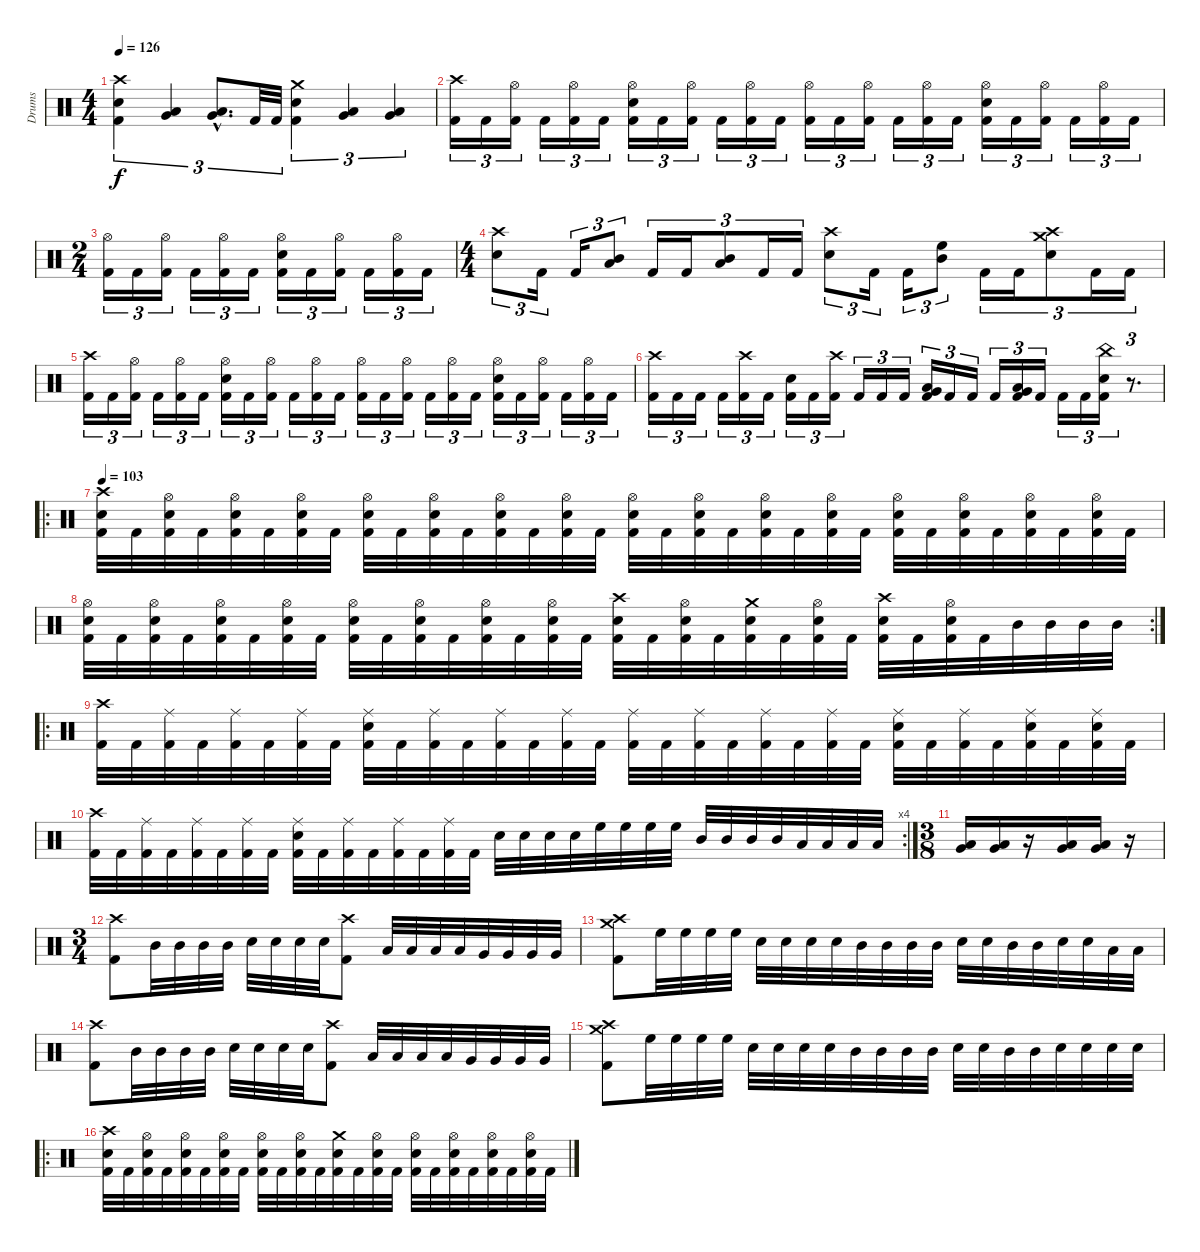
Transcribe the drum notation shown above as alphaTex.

\track ("Drums" "Drums") {instrument percussion}
\staff {score}
\articulation defaults
\ts (4 4)
\tempo 126
\clef neutral
\ks c
("Crash high (hit)" "Electric Snare (hit)" "Kick (hit) 2").4{tu (3 2) dy f} ("Low Tom (hit)" "Very Low Tom (hit)").4{tu (3 2)} ("Low Tom (hit)"{hac} "Very Low Tom (hit)"{hac}).8{d tu (3 2)} "Kick (hit) 2".32{tu (3 2)} "Kick (hit) 2".32{tu (3 2)} ("Crash medium (hit)" "Electric Snare (hit)" "Kick (hit) 2").4{tu (3 2)} ("Low Tom (hit)" "Very Low Tom (hit)").4{tu (3 2)} ("Low Tom (hit)" "Very Low Tom (hit)").4{tu (3 2)} |
("Crash high (hit)" "Kick (hit) 2").16{tu (3 2)} "Kick (hit) 2".16{tu (3 2)} ("Hi-Hat (open)" "Kick (hit) 2").16{tu (3 2)} "Kick (hit) 2".16{tu (3 2)} ("Hi-Hat (open)" "Kick (hit) 2").16{tu (3 2)} "Kick (hit) 2".16{tu (3 2)} ("Hi-Hat (open)" "Electric Snare (hit)" "Kick (hit) 2").16{tu (3 2)} "Kick (hit) 2".16{tu (3 2)} ("Hi-Hat (open)" "Kick (hit) 2").16{tu (3 2)} "Kick (hit) 2".16{tu (3 2)} ("Hi-Hat (open)" "Kick (hit) 2").16{tu (3 2)} "Kick (hit) 2".16{tu (3 2)} ("Hi-Hat (open)" "Kick (hit) 2").16{tu (3 2)} "Kick (hit) 2".16{tu (3 2)} ("Hi-Hat (open)" "Kick (hit) 2").16{tu (3 2)} "Kick (hit) 2".16{tu (3 2)} ("Hi-Hat (open)" "Kick (hit) 2").16{tu (3 2)} "Kick (hit) 2".16{tu (3 2)} ("Hi-Hat (open)" "Electric Snare (hit)" "Kick (hit) 2").16{tu (3 2)} "Kick (hit) 2".16{tu (3 2)} ("Hi-Hat (open)" "Kick (hit) 2").16{tu (3 2)} "Kick (hit) 2".16{tu (3 2)} ("Hi-Hat (open)" "Kick (hit) 2").16{tu (3 2)} "Kick (hit) 2".16{tu (3 2)} |
\ts (2 4)
("Hi-Hat (open)" "Kick (hit) 2").16{tu (3 2)} "Kick (hit) 2".16{tu (3 2)} ("Hi-Hat (open)" "Kick (hit) 2").16{tu (3 2)} "Kick (hit) 2".16{tu (3 2)} ("Hi-Hat (open)" "Kick (hit) 2").16{tu (3 2)} "Kick (hit) 2".16{tu (3 2)} ("Hi-Hat (open)" "Electric Snare (hit)" "Kick (hit) 2").16{tu (3 2)} "Kick (hit) 2".16{tu (3 2)} ("Hi-Hat (open)" "Kick (hit) 2").16{tu (3 2)} "Kick (hit) 2".16{tu (3 2)} ("Hi-Hat (open)" "Kick (hit) 2").16{tu (3 2)} "Kick (hit) 2".16{tu (3 2)} |
\ts (4 4)
("Crash high (hit)" "Electric Snare (hit)").8{tu (3 2)} "Kick (hit) 2".16{tu (3 2)} "Kick (hit) 2".16{tu (3 2)} ("Mid Tom (hit)" "Low Tom (hit)").8{tu (3 2)} "Kick (hit) 2".16{tu (3 2)} "Kick (hit) 2".16{tu (3 2)} ("Low Tom (hit)" "Mid Tom (hit)").8{tu (3 2)} "Kick (hit) 2".16{tu (3 2)} "Kick (hit) 2".16{tu (3 2)} ("Crash high (hit)" "Electric Snare (hit)").8{tu (3 2)} "Kick (hit) 2".16{tu (3 2)} "Kick (hit) 2".16{tu (3 2)} ("High Floor Tom (hit)" "Mid Tom (hit)").8{tu (3 2)} "Kick (hit) 2".16{tu (3 2)} "Kick (hit) 2".16{tu (3 2)} ("Crash medium (hit)" "Crash high (hit)" "Electric Snare (hit)").8{tu (3 2)} "Kick (hit) 2".16{tu (3 2)} "Kick (hit) 2".16{tu (3 2)} |
("Crash high (hit)" "Kick (hit) 2").16{tu (3 2)} "Kick (hit) 2".16{tu (3 2)} ("Hi-Hat (open)" "Kick (hit) 2").16{tu (3 2)} "Kick (hit) 2".16{tu (3 2)} ("Hi-Hat (open)" "Kick (hit) 2").16{tu (3 2)} "Kick (hit) 2".16{tu (3 2)} ("Hi-Hat (open)" "Electric Snare (hit)" "Kick (hit) 2").16{tu (3 2)} "Kick (hit) 2".16{tu (3 2)} ("Hi-Hat (open)" "Kick (hit) 2").16{tu (3 2)} "Kick (hit) 2".16{tu (3 2)} ("Hi-Hat (open)" "Kick (hit) 2").16{tu (3 2)} "Kick (hit) 2".16{tu (3 2)} ("Hi-Hat (open)" "Kick (hit) 2").16{tu (3 2)} "Kick (hit) 2".16{tu (3 2)} ("Hi-Hat (open)" "Kick (hit) 2").16{tu (3 2)} "Kick (hit) 2".16{tu (3 2)} ("Hi-Hat (open)" "Kick (hit) 2").16{tu (3 2)} "Kick (hit) 2".16{tu (3 2)} ("Hi-Hat (open)" "Electric Snare (hit)" "Kick (hit) 2").16{tu (3 2)} "Kick (hit) 2".16{tu (3 2)} ("Hi-Hat (open)" "Kick (hit) 2").16{tu (3 2)} "Kick (hit) 2".16{tu (3 2)} ("Hi-Hat (open)" "Kick (hit) 2").16{tu (3 2)} "Kick (hit) 2".16{tu (3 2)} |
("Crash high (hit)" "Kick (hit) 2").16{tu (3 2)} "Kick (hit) 2".16{tu (3 2)} "Kick (hit) 2".16{tu (3 2)} "Kick (hit) 2".16{tu (3 2)} ("Crash high (hit)" "Kick (hit) 2").16{tu (3 2)} "Kick (hit) 2".16{tu (3 2)} ("Electric Snare (hit)" "Kick (hit) 2").16{tu (3 2)} "Kick (hit) 2".16{tu (3 2)} ("Crash high (hit)" "Kick (hit) 2").16{tu (3 2)} "Kick (hit) 2".16{tu (3 2)} "Kick (hit) 2".16{tu (3 2)} "Kick (hit) 2".16{tu (3 2)} ("Low Tom (hit)" "Very Low Tom (hit)" "Kick (hit) 2").16{tu (3 2)} "Kick (hit) 2".16{tu (3 2)} "Kick (hit) 2".16{tu (3 2)} "Kick (hit) 2".16{tu (3 2)} ("Low Tom (hit)" "Very Low Tom (hit)" "Kick (hit) 2").16{tu (3 2)} "Kick (hit) 2".16{tu (3 2)} "Kick (hit) 2".16{tu (3 2)} "Kick (hit) 2".16{tu (3 2)} ("China (hit)" "Electric Snare (hit)" "Kick (hit) 2").16{tu (3 2)} r.8{d tu (3 2)} |
\ro
\tempo 103
("Crash high (hit)" "Electric Snare (hit)" "Kick (hit) 2").32 "Kick (hit) 2".32 ("Hi-Hat (open)" "Electric Snare (hit)" "Kick (hit) 2").32 "Kick (hit) 2".32 ("Hi-Hat (open)" "Electric Snare (hit)" "Kick (hit) 2").32 "Kick (hit) 2".32 ("Hi-Hat (open)" "Electric Snare (hit)" "Kick (hit) 2").32 "Kick (hit) 2".32 ("Hi-Hat (open)" "Electric Snare (hit)" "Kick (hit) 2").32 "Kick (hit) 2".32 ("Hi-Hat (open)" "Electric Snare (hit)" "Kick (hit) 2").32 "Kick (hit) 2".32 ("Hi-Hat (open)" "Electric Snare (hit)" "Kick (hit) 2").32 "Kick (hit) 2".32 ("Hi-Hat (open)" "Electric Snare (hit)" "Kick (hit) 2").32 "Kick (hit) 2".32 ("Hi-Hat (open)" "Electric Snare (hit)" "Kick (hit) 2").32 "Kick (hit) 2".32 ("Hi-Hat (open)" "Electric Snare (hit)" "Kick (hit) 2").32 "Kick (hit) 2".32 ("Hi-Hat (open)" "Electric Snare (hit)" "Kick (hit) 2").32 "Kick (hit) 2".32 ("Hi-Hat (open)" "Electric Snare (hit)" "Kick (hit) 2").32 "Kick (hit) 2".32 ("Hi-Hat (open)" "Electric Snare (hit)" "Kick (hit) 2").32 "Kick (hit) 2".32 ("Hi-Hat (open)" "Electric Snare (hit)" "Kick (hit) 2").32 "Kick (hit) 2".32 ("Hi-Hat (open)" "Electric Snare (hit)" "Kick (hit) 2").32 "Kick (hit) 2".32 ("Hi-Hat (open)" "Electric Snare (hit)" "Kick (hit) 2").32 "Kick (hit) 2".32 |
\rc 2
("Hi-Hat (open)" "Electric Snare (hit)" "Kick (hit) 2").32 "Kick (hit) 2".32 ("Hi-Hat (open)" "Electric Snare (hit)" "Kick (hit) 2").32 "Kick (hit) 2".32 ("Hi-Hat (open)" "Electric Snare (hit)" "Kick (hit) 2").32 "Kick (hit) 2".32 ("Hi-Hat (open)" "Electric Snare (hit)" "Kick (hit) 2").32 "Kick (hit) 2".32 ("Hi-Hat (open)" "Electric Snare (hit)" "Kick (hit) 2").32 "Kick (hit) 2".32 ("Hi-Hat (open)" "Electric Snare (hit)" "Kick (hit) 2").32 "Kick (hit) 2".32 ("Hi-Hat (open)" "Electric Snare (hit)" "Kick (hit) 2").32 "Kick (hit) 2".32 ("Hi-Hat (open)" "Electric Snare (hit)" "Kick (hit) 2").32 "Kick (hit) 2".32 ("Crash high (hit)" "Electric Snare (hit)" "Kick (hit) 2").32 "Kick (hit) 2".32 ("Hi-Hat (open)" "Electric Snare (hit)" "Kick (hit) 2").32 "Kick (hit) 2".32 ("Crash medium (hit)" "Electric Snare (hit)" "Kick (hit) 2").32 "Kick (hit) 2".32 ("Hi-Hat (open)" "Electric Snare (hit)" "Kick (hit) 2").32 "Kick (hit) 2".32 ("Crash high (hit)" "Electric Snare (hit)" "Kick (hit) 2").32 "Kick (hit) 2".32 ("Hi-Hat (open)" "Electric Snare (hit)" "Kick (hit) 2").32 "Kick (hit) 2".32 "Mid Tom (hit)".32 "Mid Tom (hit)".32 "Mid Tom (hit)".32 "Mid Tom (hit)".32 |
\ro
("Crash high (hit)" "Kick (hit) 2").32 "Kick (hit) 2".32 ("Ride (middle)" "Kick (hit) 2").32 "Kick (hit) 2".32 ("Ride (middle)" "Kick (hit) 2").32 "Kick (hit) 2".32 ("Ride (middle)" "Kick (hit) 2").32 "Kick (hit) 2".32 ("Ride (middle)" "Electric Snare (hit)" "Kick (hit) 2").32 "Kick (hit) 2".32 ("Ride (middle)" "Kick (hit) 2").32 "Kick (hit) 2".32 ("Ride (middle)" "Kick (hit) 2").32 "Kick (hit) 2".32 ("Ride (middle)" "Kick (hit) 2").32 "Kick (hit) 2".32 ("Ride (middle)" "Kick (hit) 2").32 "Kick (hit) 2".32 ("Ride (middle)" "Kick (hit) 2").32 "Kick (hit) 2".32 ("Ride (middle)" "Kick (hit) 2").32 "Kick (hit) 2".32 ("Ride (middle)" "Kick (hit) 2").32 "Kick (hit) 2".32 ("Ride (middle)" "Electric Snare (hit)" "Kick (hit) 2").32 "Kick (hit) 2".32 ("Ride (middle)" "Kick (hit) 2").32 "Kick (hit) 2".32 ("Ride (middle)" "Electric Snare (hit)" "Kick (hit) 2").32 "Kick (hit) 2".32 ("Ride (middle)" "Electric Snare (hit)" "Kick (hit) 2").32 "Kick (hit) 2".32 |
\rc 4
("Crash high (hit)" "Kick (hit) 2").32 "Kick (hit) 2".32 ("Ride (middle)" "Kick (hit) 2").32 "Kick (hit) 2".32 ("Ride (middle)" "Kick (hit) 2").32 "Kick (hit) 2".32 ("Ride (middle)" "Kick (hit) 2").32 "Kick (hit) 2".32 ("Ride (middle)" "Electric Snare (hit)" "Kick (hit) 2").32 "Kick (hit) 2".32 ("Ride (middle)" "Kick (hit) 2").32 "Kick (hit) 2".32 ("Ride (middle)" "Kick (hit) 2").32 "Kick (hit) 2".32 ("Ride (middle)" "Kick (hit) 2").32 "Kick (hit) 2".32 "Electric Snare (hit)".32 "Electric Snare (hit)".32 "Electric Snare (hit)".32 "Electric Snare (hit)".32 "High Floor Tom (hit)".32 "High Floor Tom (hit)".32 "High Floor Tom (hit)".32 "High Floor Tom (hit)".32 "Mid Tom (hit)".32 "Mid Tom (hit)".32 "Mid Tom (hit)".32 "Mid Tom (hit)".32 "Low Tom (hit)".32 "Low Tom (hit)".32 "Low Tom (hit)".32 "Low Tom (hit)".32 |
\ts (3 8)
("Low Tom (hit)" "Very Low Tom (hit)").16 ("Low Tom (hit)" "Very Low Tom (hit)").16 r.16 ("Low Tom (hit)" "Very Low Tom (hit)").16 ("Low Tom (hit)" "Very Low Tom (hit)").16 r.16 |
\ts (3 4)
("Crash high (hit)" "Kick (hit) 2").8 "Mid Tom (hit)".32 "Mid Tom (hit)".32 "Mid Tom (hit)".32 "Mid Tom (hit)".32 "Electric Snare (hit)".32 "Electric Snare (hit)".32 "Electric Snare (hit)".32 "Electric Snare (hit)".32 ("Crash high (hit)" "Kick (hit) 2").8 "Low Tom (hit)".32 "Low Tom (hit)".32 "Low Tom (hit)".32 "Low Tom (hit)".32 "Very Low Tom (hit)".32 "Very Low Tom (hit)".32 "Very Low Tom (hit)".32 "Very Low Tom (hit)".32 |
("Crash medium (hit)" "Crash high (hit)" "Kick (hit) 2").8 "High Floor Tom (hit)".32 "High Floor Tom (hit)".32 "High Floor Tom (hit)".32 "High Floor Tom (hit)".32 "Electric Snare (hit)".32 "Electric Snare (hit)".32 "Electric Snare (hit)".32 "Electric Snare (hit)".32 "Mid Tom (hit)".32 "Mid Tom (hit)".32 "Mid Tom (hit)".32 "Mid Tom (hit)".32 "Electric Snare (hit)".32 "Electric Snare (hit)".32 "Mid Tom (hit)".32 "Mid Tom (hit)".32 "Electric Snare (hit)".32 "Electric Snare (hit)".32 "Low Tom (hit)".32 "Low Tom (hit)".32 |
("Crash high (hit)" "Kick (hit) 2").8 "Mid Tom (hit)".32 "Mid Tom (hit)".32 "Mid Tom (hit)".32 "Mid Tom (hit)".32 "Electric Snare (hit)".32 "Electric Snare (hit)".32 "Electric Snare (hit)".32 "Electric Snare (hit)".32 ("Crash high (hit)" "Kick (hit) 2").8 "Low Tom (hit)".32 "Low Tom (hit)".32 "Low Tom (hit)".32 "Low Tom (hit)".32 "Very Low Tom (hit)".32 "Very Low Tom (hit)".32 "Very Low Tom (hit)".32 "Very Low Tom (hit)".32 |
("Crash medium (hit)" "Crash high (hit)" "Kick (hit) 2").8 "High Floor Tom (hit)".32 "High Floor Tom (hit)".32 "High Floor Tom (hit)".32 "High Floor Tom (hit)".32 "Electric Snare (hit)".32 "Electric Snare (hit)".32 "Electric Snare (hit)".32 "Electric Snare (hit)".32 "Mid Tom (hit)".32 "Mid Tom (hit)".32 "Mid Tom (hit)".32 "Mid Tom (hit)".32 "Electric Snare (hit)".32 "Electric Snare (hit)".32 "Mid Tom (hit)".32 "Mid Tom (hit)".32 "Electric Snare (hit)".32 "Electric Snare (hit)".32 "Electric Snare (hit)".32 "Electric Snare (hit)".32 |
\ro
("Crash high (hit)" "Electric Snare (hit)" "Kick (hit) 2").32 "Kick (hit) 2".32 ("Hi-Hat (open)" "Electric Snare (hit)" "Kick (hit) 2").32 "Kick (hit) 2".32 ("Hi-Hat (open)" "Electric Snare (hit)" "Kick (hit) 2").32 "Kick (hit) 2".32 ("Hi-Hat (open)" "Electric Snare (hit)" "Kick (hit) 2").32 "Kick (hit) 2".32 ("Hi-Hat (open)" "Electric Snare (hit)" "Kick (hit) 2").32 "Kick (hit) 2".32 ("Hi-Hat (open)" "Electric Snare (hit)" "Kick (hit) 2").32 "Kick (hit) 2".32 ("Crash medium (hit)" "Electric Snare (hit)" "Kick (hit) 2").32 "Kick (hit) 2".32 ("Hi-Hat (open)" "Electric Snare (hit)" "Kick (hit) 2").32 "Kick (hit) 2".32 ("Hi-Hat (open)" "Electric Snare (hit)" "Kick (hit) 2").32 "Kick (hit) 2".32 ("Hi-Hat (open)" "Electric Snare (hit)" "Kick (hit) 2").32 "Kick (hit) 2".32 ("Hi-Hat (open)" "Electric Snare (hit)" "Kick (hit) 2").32 "Kick (hit) 2".32 ("Hi-Hat (open)" "Electric Snare (hit)" "Kick (hit) 2").32 "Kick (hit) 2".32
